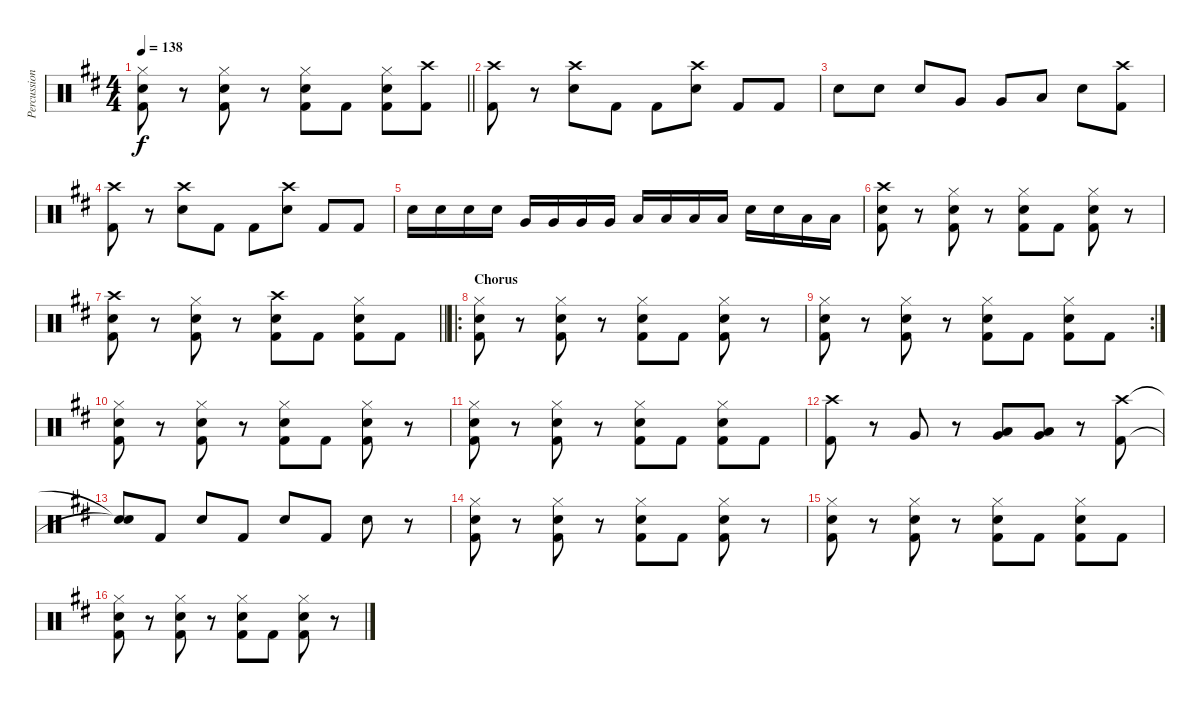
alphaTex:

\track ("Percussion" "Percussion") {instrument percussion}
\staff {score}
\articulation defaults
\ts (4 4)
\tempo 138
\clef neutral
\barLineRight lightlight
\ks d
("Hi-Hat (closed)" "Snare (hit) 2" "Kick (hit) 2").8{dy f} r.8 ("Hi-Hat (closed)" "Snare (hit) 2" "Kick (hit) 2").8 r.8 ("Hi-Hat (closed)" "Snare (hit) 2" "Kick (hit) 2").8 "Kick (hit) 2".8 ("Hi-Hat (closed)" "Snare (hit) 2" "Kick (hit) 2").8 ("Crash high (hit)" "Kick (hit) 2").8 |
("Crash high (hit)" "Kick (hit) 2").8 r.8 ("Crash high (hit)" "Snare (hit) 2").8 "Kick (hit) 2".8 "Kick (hit) 2".8 ("Crash high (hit)" "Snare (hit) 2").8 "Kick (hit) 2".8 "Kick (hit) 2".8 |
"Snare (hit) 2".8 "Snare (hit) 2".8 "Snare (hit) 2".8 "Very Low Tom (hit)".8 "Very Low Tom (hit)".8 "Low Floor Tom (hit)".8 "Snare (hit) 2".8 ("Crash high (hit)" "Kick (hit) 2").8 |
("Crash high (hit)" "Kick (hit) 2").8 r.8 ("Crash high (hit)" "Snare (hit) 2").8 "Kick (hit) 2".8 "Kick (hit) 2".8 ("Crash high (hit)" "Snare (hit) 2").8 "Kick (hit) 2".8 "Kick (hit) 2".8 |
"Snare (hit) 2".16 "Snare (hit) 2".16 "Snare (hit) 2".16 "Snare (hit) 2".16 "Very Low Tom (hit)".16 "Very Low Tom (hit)".16 "Very Low Tom (hit)".16 "Very Low Tom (hit)".16 "Low Floor Tom (hit)".16 "Low Floor Tom (hit)".16 "Low Floor Tom (hit)".16 "Low Floor Tom (hit)".16 "Snare (hit) 2".16 "Snare (hit) 2".16 "Low Floor Tom (hit)".16 "Low Floor Tom (hit)".16 |
("Crash high (hit)" "Snare (hit) 2" "Kick (hit) 2").8 r.8 ("Hi-Hat (closed)" "Snare (hit) 2" "Kick (hit) 2").8 r.8 ("Hi-Hat (closed)" "Snare (hit) 2" "Kick (hit) 2").8 "Kick (hit) 2".8 ("Hi-Hat (closed)" "Snare (hit) 2" "Kick (hit) 2").8 r.8 |
\barLineRight lightlight
("Crash high (hit)" "Snare (hit) 2" "Kick (hit) 2").8 r.8 ("Hi-Hat (closed)" "Snare (hit) 2" "Kick (hit) 2").8 r.8 ("Crash high (hit)" "Snare (hit) 2" "Kick (hit) 2").8 "Kick (hit) 2".8 ("Hi-Hat (closed)" "Snare (hit) 2" "Kick (hit) 2").8 "Kick (hit) 2".8 |
\ro
\section ("" "Chorus")
("Hi-Hat (closed)" "Snare (hit) 2" "Kick (hit) 2").8 r.8 ("Hi-Hat (closed)" "Snare (hit) 2" "Kick (hit) 2").8 r.8 ("Hi-Hat (closed)" "Snare (hit) 2" "Kick (hit) 2").8 "Kick (hit) 2".8 ("Hi-Hat (closed)" "Snare (hit) 2" "Kick (hit) 2").8 r.8 |
\rc 2
("Hi-Hat (closed)" "Snare (hit) 2" "Kick (hit) 2").8 r.8 ("Hi-Hat (closed)" "Snare (hit) 2" "Kick (hit) 2").8 r.8 ("Hi-Hat (closed)" "Snare (hit) 2" "Kick (hit) 2").8 "Kick (hit) 2".8 ("Hi-Hat (closed)" "Snare (hit) 2" "Kick (hit) 2").8 "Kick (hit) 2".8 |
("Hi-Hat (closed)" "Snare (hit) 2" "Kick (hit) 2").8 r.8 ("Hi-Hat (closed)" "Snare (hit) 2" "Kick (hit) 2").8 r.8 ("Hi-Hat (closed)" "Snare (hit) 2" "Kick (hit) 2").8 "Kick (hit) 2".8 ("Hi-Hat (closed)" "Snare (hit) 2" "Kick (hit) 2").8 r.8 |
("Hi-Hat (closed)" "Snare (hit) 2" "Kick (hit) 2").8 r.8 ("Hi-Hat (closed)" "Snare (hit) 2" "Kick (hit) 2").8 r.8 ("Hi-Hat (closed)" "Snare (hit) 2" "Kick (hit) 2").8 "Kick (hit) 2".8 ("Hi-Hat (closed)" "Snare (hit) 2" "Kick (hit) 2").8 "Kick (hit) 2".8 |
("Crash high (hit)" "Kick (hit) 2").8 r.8 "Very Low Tom (hit)".8 r.8 ("Very Low Tom (hit)" "Low Floor Tom (hit)").8 ("Very Low Tom (hit)" "Low Floor Tom (hit)").8 r.8 ("Crash high (hit)" "Kick (hit) 2").8 |
("Snare (hit)"{t} "Snare (hit)"{t}).8 "Kick (hit) 2".8 "Snare (hit) 2".8 "Kick (hit) 2".8 "Snare (hit) 2".8 "Kick (hit) 2".8 "Snare (hit) 2".8 r.8 |
("Hi-Hat (closed)" "Snare (hit) 2" "Kick (hit) 2").8 r.8 ("Hi-Hat (closed)" "Snare (hit) 2" "Kick (hit) 2").8 r.8 ("Hi-Hat (closed)" "Snare (hit) 2" "Kick (hit) 2").8 "Kick (hit) 2".8 ("Hi-Hat (closed)" "Snare (hit) 2" "Kick (hit) 2").8 r.8 |
("Hi-Hat (closed)" "Snare (hit) 2" "Kick (hit) 2").8 r.8 ("Hi-Hat (closed)" "Snare (hit) 2" "Kick (hit) 2").8 r.8 ("Hi-Hat (closed)" "Snare (hit) 2" "Kick (hit) 2").8 "Kick (hit) 2".8 ("Hi-Hat (closed)" "Snare (hit) 2" "Kick (hit) 2").8 "Kick (hit) 2".8 |
("Hi-Hat (closed)" "Snare (hit) 2" "Kick (hit) 2").8 r.8 ("Hi-Hat (closed)" "Snare (hit) 2" "Kick (hit) 2").8 r.8 ("Hi-Hat (closed)" "Snare (hit) 2" "Kick (hit) 2").8 "Kick (hit) 2".8 ("Hi-Hat (closed)" "Snare (hit) 2" "Kick (hit) 2").8 r.8
